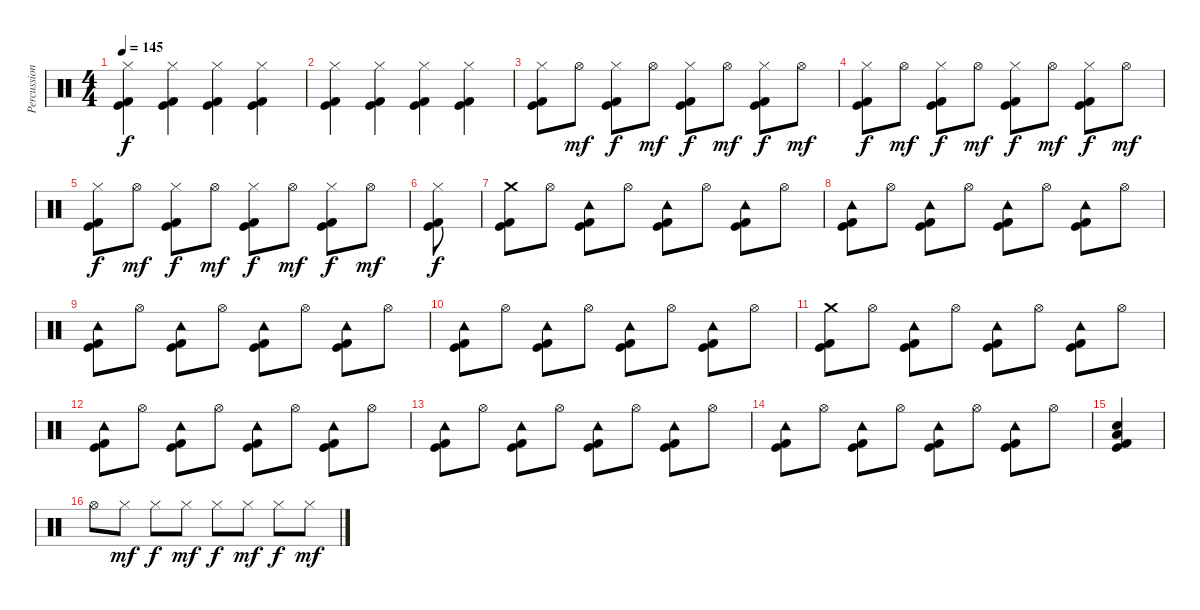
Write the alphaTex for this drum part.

\track ("Percussion" "Percussion") {instrument percussion}
\staff {score}
\articulation defaults
\ts (4 4)
\tempo 145
\clef neutral
\ks c
("Hi-Hat (closed)" "Kick (hit)" "Kick (hit) 2").4{dy f} ("Hi-Hat (closed)" "Kick (hit)" "Kick (hit) 2").4 ("Hi-Hat (closed)" "Kick (hit)" "Kick (hit) 2").4 ("Hi-Hat (closed)" "Kick (hit)" "Kick (hit) 2").4 |
("Hi-Hat (closed)" "Kick (hit)" "Kick (hit) 2").4 ("Hi-Hat (closed)" "Kick (hit)" "Kick (hit) 2").4 ("Hi-Hat (closed)" "Kick (hit)" "Kick (hit) 2").4 ("Hi-Hat (closed)" "Kick (hit)" "Kick (hit) 2").4 |
("Hi-Hat (closed)" "Kick (hit)" "Kick (hit) 2").8 "Hi-Hat (open)".8{dy mf} ("Hi-Hat (closed)" "Kick (hit)" "Kick (hit) 2").8{dy f} "Hi-Hat (open)".8{dy mf} ("Hi-Hat (closed)" "Kick (hit)" "Kick (hit) 2").8{dy f} "Hi-Hat (open)".8{dy mf} ("Hi-Hat (closed)" "Kick (hit)" "Kick (hit) 2").8{dy f} "Hi-Hat (open)".8{dy mf} |
("Hi-Hat (closed)" "Kick (hit)" "Kick (hit) 2").8{dy f} "Hi-Hat (open)".8{dy mf} ("Hi-Hat (closed)" "Kick (hit)" "Kick (hit) 2").8{dy f} "Hi-Hat (open)".8{dy mf} ("Hi-Hat (closed)" "Kick (hit)" "Kick (hit) 2").8{dy f} "Hi-Hat (open)".8{dy mf} ("Hi-Hat (closed)" "Kick (hit)" "Kick (hit) 2").8{dy f} "Hi-Hat (open)".8{dy mf} |
("Hi-Hat (closed)" "Kick (hit)" "Kick (hit) 2").8{dy f} "Hi-Hat (open)".8{dy mf} ("Hi-Hat (closed)" "Kick (hit)" "Kick (hit) 2").8{dy f} "Hi-Hat (open)".8{dy mf} ("Hi-Hat (closed)" "Kick (hit)" "Kick (hit) 2").8{dy f} "Hi-Hat (open)".8{dy mf} ("Hi-Hat (closed)" "Kick (hit)" "Kick (hit) 2").8{dy f} "Hi-Hat (open)".8{dy mf} |
("Hi-Hat (closed)" "Kick (hit)" "Kick (hit) 2").8{dy f} |
("Crash medium (hit)" "Kick (hit) 2" "Kick (hit)").8 "Hi-Hat (open)".8 ("Tambourine (hit)" "Kick (hit) 2" "Kick (hit)").8 "Hi-Hat (open)".8 ("Tambourine (hit)" "Kick (hit) 2" "Kick (hit)").8 "Hi-Hat (open)".8 ("Tambourine (hit)" "Kick (hit) 2" "Kick (hit)").8 "Hi-Hat (open)".8 |
("Tambourine (hit)" "Kick (hit) 2" "Kick (hit)").8 "Hi-Hat (open)".8 ("Tambourine (hit)" "Kick (hit) 2" "Kick (hit)").8 "Hi-Hat (open)".8 ("Tambourine (hit)" "Kick (hit) 2" "Kick (hit)").8 "Hi-Hat (open)".8 ("Tambourine (hit)" "Kick (hit) 2" "Kick (hit)").8 "Hi-Hat (open)".8 |
("Tambourine (hit)" "Kick (hit) 2" "Kick (hit)").8 "Hi-Hat (open)".8 ("Tambourine (hit)" "Kick (hit) 2" "Kick (hit)").8 "Hi-Hat (open)".8 ("Tambourine (hit)" "Kick (hit) 2" "Kick (hit)").8 "Hi-Hat (open)".8 ("Tambourine (hit)" "Kick (hit) 2" "Kick (hit)").8 "Hi-Hat (open)".8 |
("Tambourine (hit)" "Kick (hit) 2" "Kick (hit)").8 "Hi-Hat (open)".8 ("Tambourine (hit)" "Kick (hit) 2" "Kick (hit)").8 "Hi-Hat (open)".8 ("Tambourine (hit)" "Kick (hit) 2" "Kick (hit)").8 "Hi-Hat (open)".8 ("Tambourine (hit)" "Kick (hit) 2" "Kick (hit)").8 "Hi-Hat (open)".8 |
("Crash medium (hit)" "Kick (hit) 2" "Kick (hit)").8 "Hi-Hat (open)".8 ("Tambourine (hit)" "Kick (hit) 2" "Kick (hit)").8 "Hi-Hat (open)".8 ("Tambourine (hit)" "Kick (hit) 2" "Kick (hit)").8 "Hi-Hat (open)".8 ("Tambourine (hit)" "Kick (hit) 2" "Kick (hit)").8 "Hi-Hat (open)".8 |
("Tambourine (hit)" "Kick (hit) 2" "Kick (hit)").8 "Hi-Hat (open)".8 ("Tambourine (hit)" "Kick (hit) 2" "Kick (hit)").8 "Hi-Hat (open)".8 ("Tambourine (hit)" "Kick (hit) 2" "Kick (hit)").8 "Hi-Hat (open)".8 ("Tambourine (hit)" "Kick (hit) 2" "Kick (hit)").8 "Hi-Hat (open)".8 |
("Tambourine (hit)" "Kick (hit) 2" "Kick (hit)").8 "Hi-Hat (open)".8 ("Tambourine (hit)" "Kick (hit) 2" "Kick (hit)").8 "Hi-Hat (open)".8 ("Tambourine (hit)" "Kick (hit) 2" "Kick (hit)").8 "Hi-Hat (open)".8 ("Tambourine (hit)" "Kick (hit) 2" "Kick (hit)").8 "Hi-Hat (open)".8 |
("Tambourine (hit)" "Kick (hit) 2" "Kick (hit)").8 "Hi-Hat (open)".8 ("Tambourine (hit)" "Kick (hit) 2" "Kick (hit)").8 "Hi-Hat (open)".8 ("Tambourine (hit)" "Kick (hit) 2" "Kick (hit)").8 "Hi-Hat (open)".8 ("Tambourine (hit)" "Kick (hit) 2" "Kick (hit)").8 "Hi-Hat (open)".8 |
("Electric Snare (hit)" "Low Floor Tom (hit)" "Kick (hit) 2" "Kick (hit)").4 |
"Hi-Hat (open)".8 "Hi-Hat (closed)".8{dy mf} "Hi-Hat (closed)".8{dy f} "Hi-Hat (closed)".8{dy mf} "Hi-Hat (closed)".8{dy f} "Hi-Hat (closed)".8{dy mf} "Hi-Hat (closed)".8{dy f} "Hi-Hat (closed)".8{dy mf}
